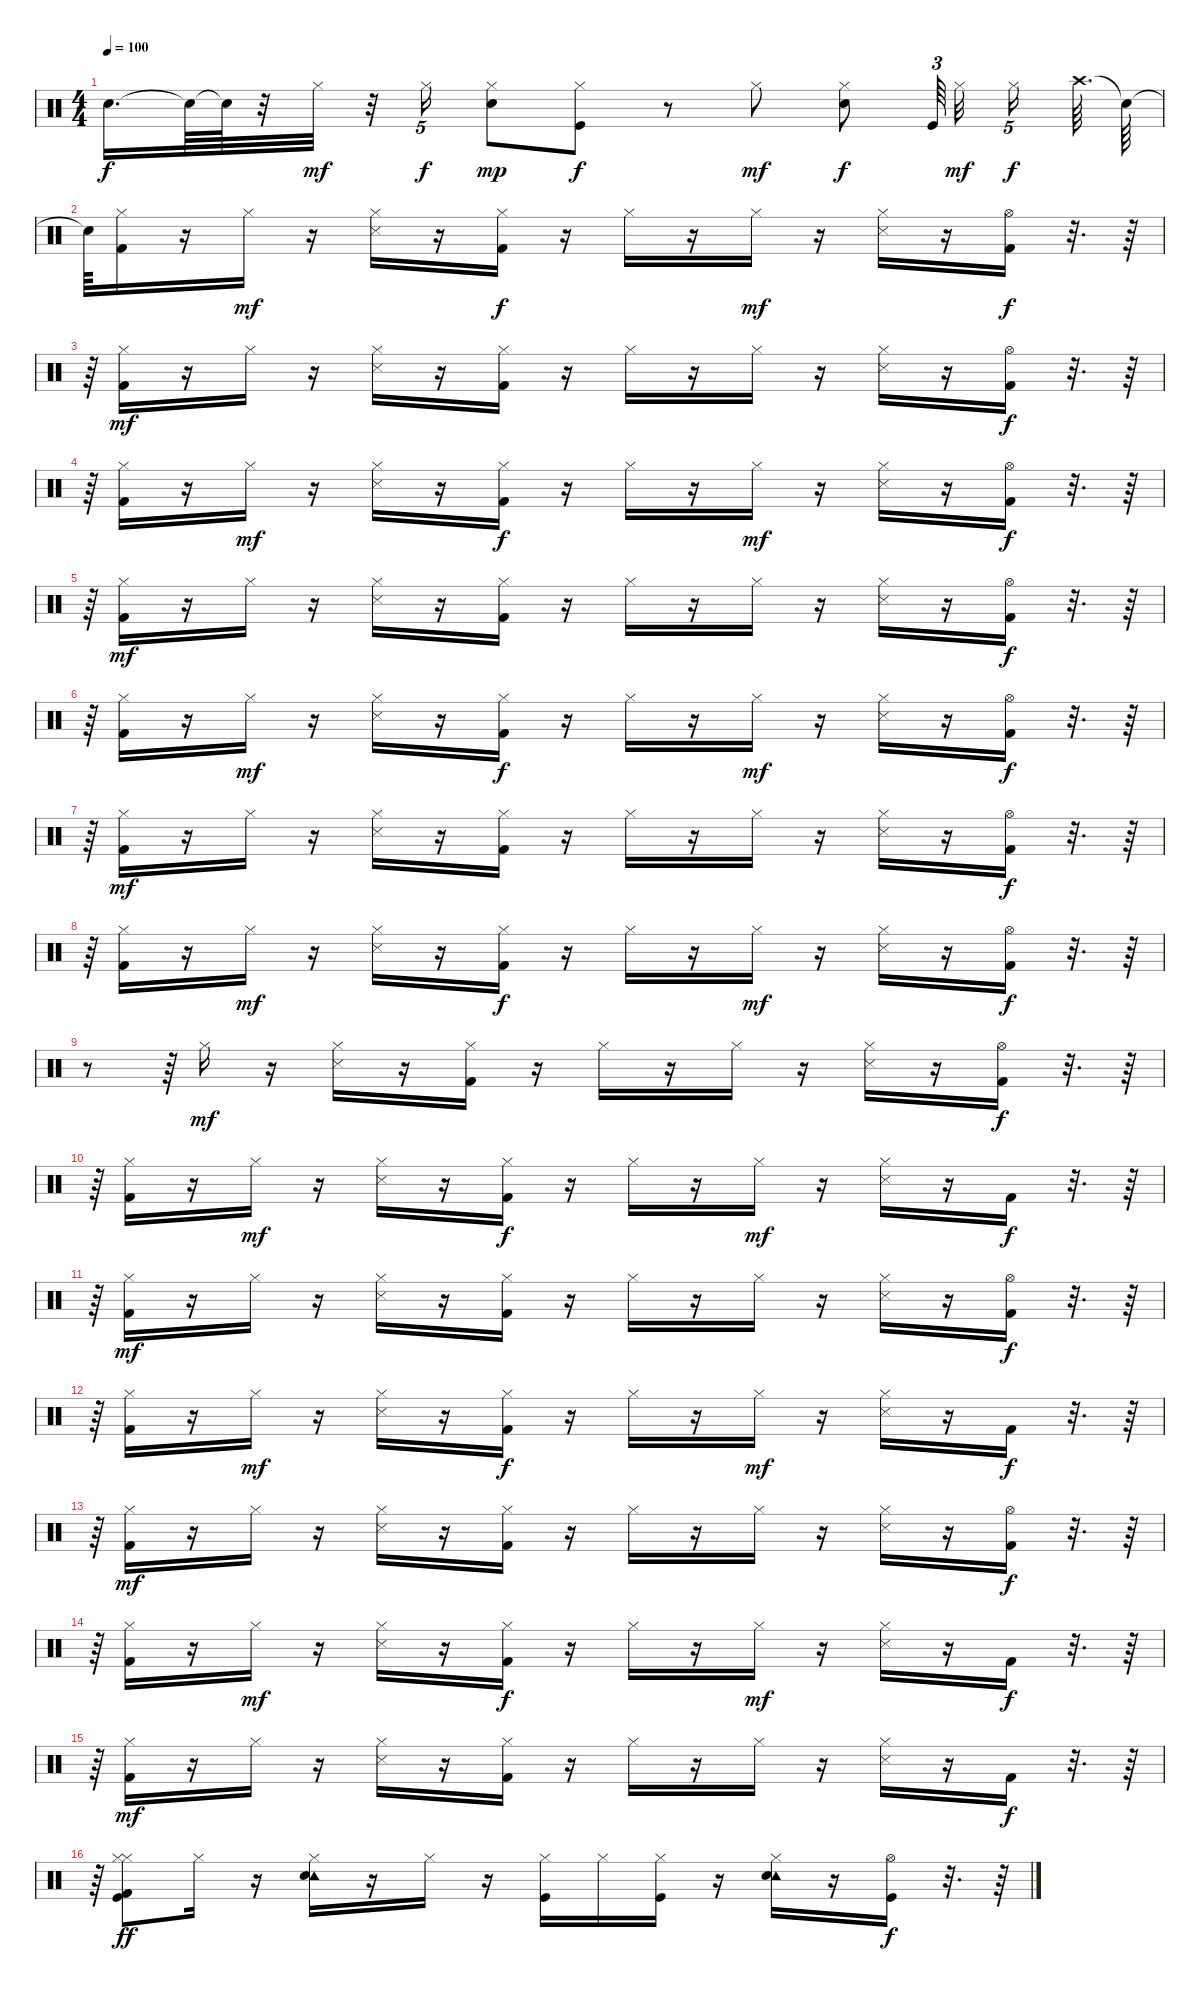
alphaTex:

\track "" {instrument percussion}
\staff {score}
\articulation defaults
\ts (4 4)
\tempo 100
\clef neutral
\ks c "Snare (hit)"{t}.16{d dy f} "Snare (hit)"{t}.64 "Snare (hit)"{t}.64
r.32 "Hi-Hat (closed)".32{dy mf} r.32 "Hi-Hat (closed)".16{tu (5 4) dy f} ("Hi-Hat (closed)" "Snare (hit) 2").8{dy mp} ("Kick (hit)" "Hi-Hat (closed)").8{dy f} r.8 "Hi-Hat (closed)".8{dy mf} ("Snare (hit) 2" "Hi-Hat (closed)").8{dy f} "Kick (hit)".64{tu (3 2) beam splitsecondary} "Hi-Hat (closed)".32{dy mf beam splitsecondary} "Hi-Hat (closed)".16{tu (5 4) dy f} "Crash high (hit)".64{d} "Snare (hit)"{t}.64 |
"Snare (hit)"{t}.64 ("Hi-Hat (closed)" "Kick (hit) 2").16 r.16 "Hi-Hat (closed)".16{dy mf} r.16 ("Hi-Hat (closed)" "Snare (side stick) 3").16 r.16 ("Kick (hit) 2" "Hi-Hat (closed)").16{dy f} r.16 "Hi-Hat (closed)".16 r.16 "Hi-Hat (closed)".16{dy mf} r.16 ("Hi-Hat (closed)" "Snare (side stick) 3").16 r.16 ("Kick (hit) 2" "Hi-Hat (open)").16{dy f} r.32{d} r.64 |
r.64 ("Kick (hit) 2" "Hi-Hat (closed)").16{dy mf} r.16 "Hi-Hat (closed)".16 r.16 ("Hi-Hat (closed)" "Snare (side stick) 3").16 r.16 ("Kick (hit) 2" "Hi-Hat (closed)").16 r.16 "Hi-Hat (closed)".16 r.16 "Hi-Hat (closed)".16 r.16 ("Hi-Hat (closed)" "Snare (side stick) 3").16 r.16 ("Hi-Hat (open)" "Kick (hit) 2").16{dy f} r.32{d} r.64 |
r.64 ("Hi-Hat (closed)" "Kick (hit) 2").16 r.16 "Hi-Hat (closed)".16{dy mf} r.16 ("Hi-Hat (closed)" "Snare (side stick) 3").16 r.16 ("Kick (hit) 2" "Hi-Hat (closed)").16{dy f} r.16 "Hi-Hat (closed)".16 r.16 "Hi-Hat (closed)".16{dy mf} r.16 ("Hi-Hat (closed)" "Snare (side stick) 3").16 r.16 ("Kick (hit) 2" "Hi-Hat (open)").16{dy f} r.32{d} r.64 |
r.64 ("Kick (hit) 2" "Hi-Hat (closed)").16{dy mf} r.16 "Hi-Hat (closed)".16 r.16 ("Hi-Hat (closed)" "Snare (side stick) 3").16 r.16 ("Kick (hit) 2" "Hi-Hat (closed)").16 r.16 "Hi-Hat (closed)".16 r.16 "Hi-Hat (closed)".16 r.16 ("Hi-Hat (closed)" "Snare (side stick) 3").16 r.16 ("Hi-Hat (open)" "Kick (hit) 2").16{dy f} r.32{d} r.64 |
r.64 ("Hi-Hat (closed)" "Kick (hit) 2").16 r.16 "Hi-Hat (closed)".16{dy mf} r.16 ("Hi-Hat (closed)" "Snare (side stick) 3").16 r.16 ("Kick (hit) 2" "Hi-Hat (closed)").16{dy f} r.16 "Hi-Hat (closed)".16 r.16 "Hi-Hat (closed)".16{dy mf} r.16 ("Hi-Hat (closed)" "Snare (side stick) 3").16 r.16 ("Kick (hit) 2" "Hi-Hat (open)").16{dy f} r.32{d} r.64 |
r.64 ("Kick (hit) 2" "Hi-Hat (closed)").16{dy mf} r.16 "Hi-Hat (closed)".16 r.16 ("Hi-Hat (closed)" "Snare (side stick) 3").16 r.16 ("Kick (hit) 2" "Hi-Hat (closed)").16 r.16 "Hi-Hat (closed)".16 r.16 "Hi-Hat (closed)".16 r.16 ("Hi-Hat (closed)" "Snare (side stick) 3").16 r.16 ("Hi-Hat (open)" "Kick (hit) 2").16{dy f} r.32{d} r.64 |
r.64 ("Hi-Hat (closed)" "Kick (hit) 2").16 r.16 "Hi-Hat (closed)".16{dy mf} r.16 ("Hi-Hat (closed)" "Snare (side stick) 3").16 r.16 ("Kick (hit) 2" "Hi-Hat (closed)").16{dy f} r.16 "Hi-Hat (closed)".16 r.16 "Hi-Hat (closed)".16{dy mf} r.16 ("Hi-Hat (closed)" "Snare (side stick) 3").16 r.16 ("Kick (hit) 2" "Hi-Hat (open)").16{dy f} r.32{d} r.64 |
r.8 r.64 "Hi-Hat (closed)".16{dy mf} r.16 ("Hi-Hat (closed)" "Snare (side stick) 3").16 r.16 ("Kick (hit) 2" "Hi-Hat (closed)").16 r.16 "Hi-Hat (closed)".16 r.16 "Hi-Hat (closed)".16 r.16 ("Hi-Hat (closed)" "Snare (side stick) 3").16 r.16 ("Hi-Hat (open)" "Kick (hit) 2").16{dy f} r.32{d} r.64 |
r.64 ("Hi-Hat (closed)" "Kick (hit) 2").16 r.16 "Hi-Hat (closed)".16{dy mf} r.16 ("Hi-Hat (closed)" "Snare (side stick) 3").16 r.16 ("Kick (hit) 2" "Hi-Hat (closed)").16{dy f} r.16 "Hi-Hat (closed)".16 r.16 "Hi-Hat (closed)".16{dy mf} r.16 ("Hi-Hat (closed)" "Snare (side stick) 3").16 r.16 "Kick (hit) 2".16{dy f} r.32{d} r.64 |
r.64 ("Kick (hit) 2" "Hi-Hat (closed)").16{dy mf} r.16 "Hi-Hat (closed)".16 r.16 ("Hi-Hat (closed)" "Snare (side stick) 3").16 r.16 ("Kick (hit) 2" "Hi-Hat (closed)").16 r.16 "Hi-Hat (closed)".16 r.16 "Hi-Hat (closed)".16 r.16 ("Hi-Hat (closed)" "Snare (side stick) 3").16 r.16 ("Hi-Hat (open)" "Kick (hit) 2").16{dy f} r.32{d} r.64 |
r.64 ("Hi-Hat (closed)" "Kick (hit) 2").16 r.16 "Hi-Hat (closed)".16{dy mf} r.16 ("Hi-Hat (closed)" "Snare (side stick) 3").16 r.16 ("Kick (hit) 2" "Hi-Hat (closed)").16{dy f} r.16 "Hi-Hat (closed)".16 r.16 "Hi-Hat (closed)".16{dy mf} r.16 ("Hi-Hat (closed)" "Snare (side stick) 3").16 r.16 "Kick (hit) 2".16{dy f} r.32{d} r.64 |
r.64 ("Kick (hit) 2" "Hi-Hat (closed)").16{dy mf} r.16 "Hi-Hat (closed)".16 r.16 ("Hi-Hat (closed)" "Snare (side stick) 3").16 r.16 ("Kick (hit) 2" "Hi-Hat (closed)").16 r.16 "Hi-Hat (closed)".16 r.16 "Hi-Hat (closed)".16 r.16 ("Hi-Hat (closed)" "Snare (side stick) 3").16 r.16 ("Hi-Hat (open)" "Kick (hit) 2").16{dy f} r.32{d} r.64 |
r.64 ("Hi-Hat (closed)" "Kick (hit) 2").16 r.16 "Hi-Hat (closed)".16{dy mf} r.16 ("Hi-Hat (closed)" "Snare (side stick) 3").16 r.16 ("Kick (hit) 2" "Hi-Hat (closed)").16{dy f} r.16 "Hi-Hat (closed)".16 r.16 "Hi-Hat (closed)".16{dy mf} r.16 ("Hi-Hat (closed)" "Snare (side stick) 3").16 r.16 "Kick (hit) 2".16{dy f} r.32{d} r.64 |
r.64 ("Kick (hit) 2" "Hi-Hat (closed)").16{dy mf} r.16 "Hi-Hat (closed)".16 r.16 ("Hi-Hat (closed)" "Snare (side stick) 3").16 r.16 ("Kick (hit) 2" "Hi-Hat (closed)").16 r.16 "Hi-Hat (closed)".16 r.16 "Hi-Hat (closed)".16 r.16 ("Hi-Hat (closed)" "Snare (side stick) 3").16 r.16 "Kick (hit) 2".16{dy f} r.32{d} r.64 |
r.64 ("Kick (hit) 2" "Hi-Hat (closed)" "Hi-Hat (closed)" "Kick (hit)").8{dy ff} "Hi-Hat (closed)".16 r.16 ("Hi-Hat (closed)" "Tambourine (hit)" "Electric Snare (hit)").16 r.16 "Hi-Hat (closed)".16 r.16 ("Hi-Hat (closed)" "Kick (hit)").16 "Hi-Hat (closed)".16 ("Hi-Hat (closed)" "Kick (hit)").16 r.16 ("Hi-Hat (closed)" "Tambourine (hit)" "Electric Snare (hit)").16 r.16 ("Hi-Hat (open)" "Kick (hit)").16{dy f} r.32{d} r.64
